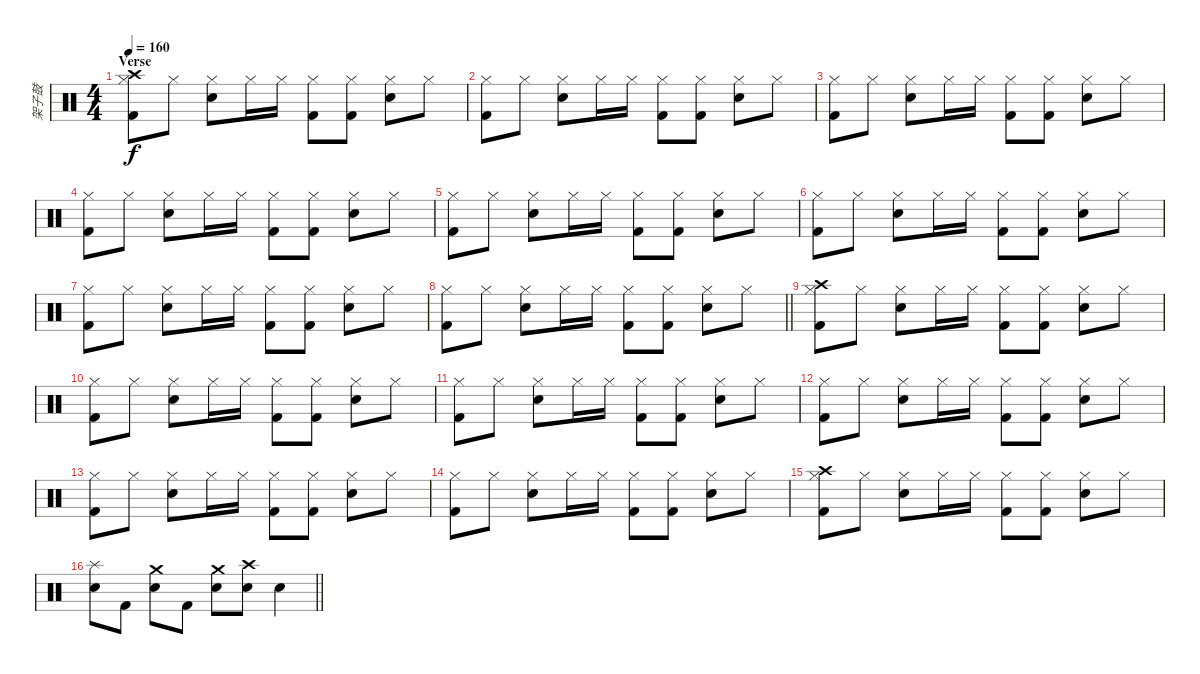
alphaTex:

\track ("架子鼓" "架子鼓") {instrument percussion}
\staff {score}
\articulation defaults
\ts (4 4)
\section ("" "Verse")
\tempo 160
\clef neutral
\ks c
("Hi-Hat (closed)" "Crash high (hit)" "Kick (hit) 2").8{dy f} "Hi-Hat (closed)".8 ("Hi-Hat (closed)" "Electric Snare (hit)").8 "Hi-Hat (closed)".16 "Hi-Hat (closed)".16 ("Hi-Hat (closed)" "Kick (hit) 2").8 ("Hi-Hat (closed)" "Kick (hit) 2").8 ("Hi-Hat (closed)" "Electric Snare (hit)").8 "Hi-Hat (closed)".8 |
("Hi-Hat (closed)" "Kick (hit) 2").8 "Hi-Hat (closed)".8 ("Hi-Hat (closed)" "Electric Snare (hit)").8 "Hi-Hat (closed)".16 "Hi-Hat (closed)".16 ("Hi-Hat (closed)" "Kick (hit) 2").8 ("Hi-Hat (closed)" "Kick (hit) 2").8 ("Hi-Hat (closed)" "Electric Snare (hit)").8 "Hi-Hat (closed)".8 |
("Hi-Hat (closed)" "Kick (hit) 2").8 "Hi-Hat (closed)".8 ("Hi-Hat (closed)" "Electric Snare (hit)").8 "Hi-Hat (closed)".16 "Hi-Hat (closed)".16 ("Hi-Hat (closed)" "Kick (hit) 2").8 ("Hi-Hat (closed)" "Kick (hit) 2").8 ("Hi-Hat (closed)" "Electric Snare (hit)").8 "Hi-Hat (closed)".8 |
("Hi-Hat (closed)" "Kick (hit) 2").8 "Hi-Hat (closed)".8 ("Hi-Hat (closed)" "Electric Snare (hit)").8 "Hi-Hat (closed)".16 "Hi-Hat (closed)".16 ("Hi-Hat (closed)" "Kick (hit) 2").8 ("Hi-Hat (closed)" "Kick (hit) 2").8 ("Hi-Hat (closed)" "Electric Snare (hit)").8 "Hi-Hat (closed)".8 |
("Hi-Hat (closed)" "Kick (hit) 2").8 "Hi-Hat (closed)".8 ("Hi-Hat (closed)" "Electric Snare (hit)").8 "Hi-Hat (closed)".16 "Hi-Hat (closed)".16 ("Hi-Hat (closed)" "Kick (hit) 2").8 ("Hi-Hat (closed)" "Kick (hit) 2").8 ("Hi-Hat (closed)" "Electric Snare (hit)").8 "Hi-Hat (closed)".8 |
("Hi-Hat (closed)" "Kick (hit) 2").8 "Hi-Hat (closed)".8 ("Hi-Hat (closed)" "Electric Snare (hit)").8 "Hi-Hat (closed)".16 "Hi-Hat (closed)".16 ("Hi-Hat (closed)" "Kick (hit) 2").8 ("Hi-Hat (closed)" "Kick (hit) 2").8 ("Hi-Hat (closed)" "Electric Snare (hit)").8 "Hi-Hat (closed)".8 |
("Hi-Hat (closed)" "Kick (hit) 2").8 "Hi-Hat (closed)".8 ("Hi-Hat (closed)" "Electric Snare (hit)").8 "Hi-Hat (closed)".16 "Hi-Hat (closed)".16 ("Hi-Hat (closed)" "Kick (hit) 2").8 ("Hi-Hat (closed)" "Kick (hit) 2").8 ("Hi-Hat (closed)" "Electric Snare (hit)").8 "Hi-Hat (closed)".8 |
\barLineRight lightlight
("Hi-Hat (closed)" "Kick (hit) 2").8 "Hi-Hat (closed)".8 ("Hi-Hat (closed)" "Electric Snare (hit)").8 "Hi-Hat (closed)".16 "Hi-Hat (closed)".16 ("Hi-Hat (closed)" "Kick (hit) 2").8 ("Hi-Hat (closed)" "Kick (hit) 2").8 ("Hi-Hat (closed)" "Electric Snare (hit)").8 "Hi-Hat (closed)".8 |
("Hi-Hat (closed)" "Crash high (hit)" "Kick (hit) 2").8 "Hi-Hat (closed)".8 ("Hi-Hat (closed)" "Electric Snare (hit)").8 "Hi-Hat (closed)".16 "Hi-Hat (closed)".16 ("Hi-Hat (closed)" "Kick (hit) 2").8 ("Hi-Hat (closed)" "Kick (hit) 2").8 ("Hi-Hat (closed)" "Electric Snare (hit)").8 "Hi-Hat (closed)".8 |
("Hi-Hat (closed)" "Kick (hit) 2").8 "Hi-Hat (closed)".8 ("Hi-Hat (closed)" "Electric Snare (hit)").8 "Hi-Hat (closed)".16 "Hi-Hat (closed)".16 ("Hi-Hat (closed)" "Kick (hit) 2").8 ("Hi-Hat (closed)" "Kick (hit) 2").8 ("Hi-Hat (closed)" "Electric Snare (hit)").8 "Hi-Hat (closed)".8 |
("Hi-Hat (closed)" "Kick (hit) 2").8 "Hi-Hat (closed)".8 ("Hi-Hat (closed)" "Electric Snare (hit)").8 "Hi-Hat (closed)".16 "Hi-Hat (closed)".16 ("Hi-Hat (closed)" "Kick (hit) 2").8 ("Hi-Hat (closed)" "Kick (hit) 2").8 ("Hi-Hat (closed)" "Electric Snare (hit)").8 "Hi-Hat (closed)".8 |
("Hi-Hat (closed)" "Kick (hit) 2").8 "Hi-Hat (closed)".8 ("Hi-Hat (closed)" "Electric Snare (hit)").8 "Hi-Hat (closed)".16 "Hi-Hat (closed)".16 ("Hi-Hat (closed)" "Kick (hit) 2").8 ("Hi-Hat (closed)" "Kick (hit) 2").8 ("Hi-Hat (closed)" "Electric Snare (hit)").8 "Hi-Hat (closed)".8 |
("Hi-Hat (closed)" "Kick (hit) 2").8 "Hi-Hat (closed)".8 ("Hi-Hat (closed)" "Electric Snare (hit)").8 "Hi-Hat (closed)".16 "Hi-Hat (closed)".16 ("Hi-Hat (closed)" "Kick (hit) 2").8 ("Hi-Hat (closed)" "Kick (hit) 2").8 ("Hi-Hat (closed)" "Electric Snare (hit)").8 "Hi-Hat (closed)".8 |
("Hi-Hat (closed)" "Kick (hit) 2").8 "Hi-Hat (closed)".8 ("Hi-Hat (closed)" "Electric Snare (hit)").8 "Hi-Hat (closed)".16 "Hi-Hat (closed)".16 ("Hi-Hat (closed)" "Kick (hit) 2").8 ("Hi-Hat (closed)" "Kick (hit) 2").8 ("Hi-Hat (closed)" "Electric Snare (hit)").8 "Hi-Hat (closed)".8 |
("Hi-Hat (closed)" "Crash high (hit)" "Kick (hit) 2").8 "Hi-Hat (closed)".8 ("Hi-Hat (closed)" "Electric Snare (hit)").8 "Hi-Hat (closed)".16 "Hi-Hat (closed)".16 ("Hi-Hat (closed)" "Kick (hit) 2").8 ("Hi-Hat (closed)" "Kick (hit) 2").8 ("Hi-Hat (closed)" "Electric Snare (hit)").8 "Hi-Hat (closed)".8 |
\barLineRight lightlight
("Splash (hit)" "Electric Snare (hit)").8 "Kick (hit) 2".8 ("Crash medium (hit)" "Electric Snare (hit)").8 "Kick (hit) 2".8 ("Crash medium (hit)" "Electric Snare (hit)").8 ("Crash high (hit)" "Electric Snare (hit)").8 "Electric Snare (hit)".4
